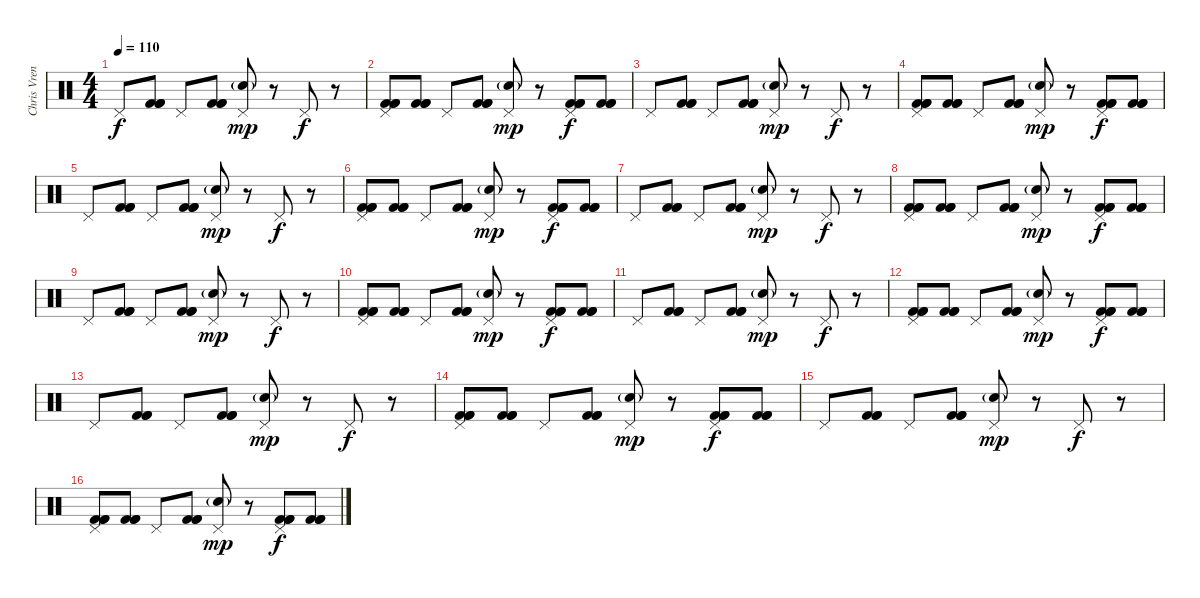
\track ("Chris Vrenna " "Chris Vren") {instrument percussion}
\staff {score}
\articulation defaults
\ts (4 4)
\tempo 110
\clef neutral
\ks c "Pedal Hi-Hat (hit)".8{dy f}
("Kick (hit) 2" "Kick (hit) 2" "Kick (hit) 2").8 "Pedal Hi-Hat (hit)".8 ("Kick (hit) 2" "Kick (hit) 2" "Kick (hit) 2").8 ("Pedal Hi-Hat (hit)" "Electric Snare (hit)"{g}).8{dy mp} r.8 "Pedal Hi-Hat (hit)".8{dy f} r.8 |
("Pedal Hi-Hat (hit)" "Kick (hit) 2" "Kick (hit) 2" "Kick (hit) 2").8 ("Kick (hit) 2" "Kick (hit) 2" "Kick (hit) 2").8 "Pedal Hi-Hat (hit)".8 ("Kick (hit) 2" "Kick (hit) 2" "Kick (hit) 2").8 ("Pedal Hi-Hat (hit)" "Electric Snare (hit)"{g}).8{dy mp} r.8 ("Pedal Hi-Hat (hit)" "Kick (hit) 2" "Kick (hit) 2" "Kick (hit) 2").8{dy f} ("Kick (hit) 2" "Kick (hit) 2" "Kick (hit) 2").8 |
"Pedal Hi-Hat (hit)".8 ("Kick (hit) 2" "Kick (hit) 2" "Kick (hit) 2").8 "Pedal Hi-Hat (hit)".8 ("Kick (hit) 2" "Kick (hit) 2" "Kick (hit) 2").8 ("Pedal Hi-Hat (hit)" "Electric Snare (hit)"{g}).8{dy mp} r.8 "Pedal Hi-Hat (hit)".8{dy f} r.8 |
("Pedal Hi-Hat (hit)" "Kick (hit) 2" "Kick (hit) 2" "Kick (hit) 2").8 ("Kick (hit) 2" "Kick (hit) 2" "Kick (hit) 2").8 "Pedal Hi-Hat (hit)".8 ("Kick (hit) 2" "Kick (hit) 2" "Kick (hit) 2").8 ("Pedal Hi-Hat (hit)" "Electric Snare (hit)"{g}).8{dy mp} r.8 ("Pedal Hi-Hat (hit)" "Kick (hit) 2" "Kick (hit) 2" "Kick (hit) 2").8{dy f} ("Kick (hit) 2" "Kick (hit) 2" "Kick (hit) 2").8 |
"Pedal Hi-Hat (hit)".8 ("Kick (hit) 2" "Kick (hit) 2" "Kick (hit) 2").8 "Pedal Hi-Hat (hit)".8 ("Kick (hit) 2" "Kick (hit) 2" "Kick (hit) 2").8 ("Pedal Hi-Hat (hit)" "Electric Snare (hit)"{g}).8{dy mp} r.8 "Pedal Hi-Hat (hit)".8{dy f} r.8 |
("Pedal Hi-Hat (hit)" "Kick (hit) 2" "Kick (hit) 2" "Kick (hit) 2").8 ("Kick (hit) 2" "Kick (hit) 2" "Kick (hit) 2").8 "Pedal Hi-Hat (hit)".8 ("Kick (hit) 2" "Kick (hit) 2" "Kick (hit) 2").8 ("Pedal Hi-Hat (hit)" "Electric Snare (hit)"{g}).8{dy mp} r.8 ("Pedal Hi-Hat (hit)" "Kick (hit) 2" "Kick (hit) 2" "Kick (hit) 2").8{dy f} ("Kick (hit) 2" "Kick (hit) 2" "Kick (hit) 2").8 |
"Pedal Hi-Hat (hit)".8 ("Kick (hit) 2" "Kick (hit) 2" "Kick (hit) 2").8 "Pedal Hi-Hat (hit)".8 ("Kick (hit) 2" "Kick (hit) 2" "Kick (hit) 2").8 ("Pedal Hi-Hat (hit)" "Electric Snare (hit)"{g}).8{dy mp} r.8 "Pedal Hi-Hat (hit)".8{dy f} r.8 |
("Pedal Hi-Hat (hit)" "Kick (hit) 2" "Kick (hit) 2" "Kick (hit) 2").8 ("Kick (hit) 2" "Kick (hit) 2" "Kick (hit) 2").8 "Pedal Hi-Hat (hit)".8 ("Kick (hit) 2" "Kick (hit) 2" "Kick (hit) 2").8 ("Pedal Hi-Hat (hit)" "Electric Snare (hit)"{g}).8{dy mp} r.8 ("Pedal Hi-Hat (hit)" "Kick (hit) 2" "Kick (hit) 2" "Kick (hit) 2").8{dy f} ("Kick (hit) 2" "Kick (hit) 2" "Kick (hit) 2").8 |
"Pedal Hi-Hat (hit)".8 ("Kick (hit) 2" "Kick (hit) 2" "Kick (hit) 2").8 "Pedal Hi-Hat (hit)".8 ("Kick (hit) 2" "Kick (hit) 2" "Kick (hit) 2").8 ("Pedal Hi-Hat (hit)" "Electric Snare (hit)"{g}).8{dy mp} r.8 "Pedal Hi-Hat (hit)".8{dy f} r.8 |
("Pedal Hi-Hat (hit)" "Kick (hit) 2" "Kick (hit) 2" "Kick (hit) 2").8 ("Kick (hit) 2" "Kick (hit) 2" "Kick (hit) 2").8 "Pedal Hi-Hat (hit)".8 ("Kick (hit) 2" "Kick (hit) 2" "Kick (hit) 2").8 ("Pedal Hi-Hat (hit)" "Electric Snare (hit)"{g}).8{dy mp} r.8 ("Pedal Hi-Hat (hit)" "Kick (hit) 2" "Kick (hit) 2" "Kick (hit) 2").8{dy f} ("Kick (hit) 2" "Kick (hit) 2" "Kick (hit) 2").8 |
"Pedal Hi-Hat (hit)".8 ("Kick (hit) 2" "Kick (hit) 2" "Kick (hit) 2").8 "Pedal Hi-Hat (hit)".8 ("Kick (hit) 2" "Kick (hit) 2" "Kick (hit) 2").8 ("Pedal Hi-Hat (hit)" "Electric Snare (hit)"{g}).8{dy mp} r.8 "Pedal Hi-Hat (hit)".8{dy f} r.8 |
("Pedal Hi-Hat (hit)" "Kick (hit) 2" "Kick (hit) 2" "Kick (hit) 2").8 ("Kick (hit) 2" "Kick (hit) 2" "Kick (hit) 2").8 "Pedal Hi-Hat (hit)".8 ("Kick (hit) 2" "Kick (hit) 2" "Kick (hit) 2").8 ("Pedal Hi-Hat (hit)" "Electric Snare (hit)"{g}).8{dy mp} r.8 ("Pedal Hi-Hat (hit)" "Kick (hit) 2" "Kick (hit) 2" "Kick (hit) 2").8{dy f} ("Kick (hit) 2" "Kick (hit) 2" "Kick (hit) 2").8 |
"Pedal Hi-Hat (hit)".8 ("Kick (hit) 2" "Kick (hit) 2" "Kick (hit) 2").8 "Pedal Hi-Hat (hit)".8 ("Kick (hit) 2" "Kick (hit) 2" "Kick (hit) 2").8 ("Pedal Hi-Hat (hit)" "Electric Snare (hit)"{g}).8{dy mp} r.8 "Pedal Hi-Hat (hit)".8{dy f} r.8 |
("Pedal Hi-Hat (hit)" "Kick (hit) 2" "Kick (hit) 2" "Kick (hit) 2").8 ("Kick (hit) 2" "Kick (hit) 2" "Kick (hit) 2").8 "Pedal Hi-Hat (hit)".8 ("Kick (hit) 2" "Kick (hit) 2" "Kick (hit) 2").8 ("Pedal Hi-Hat (hit)" "Electric Snare (hit)"{g}).8{dy mp} r.8 ("Pedal Hi-Hat (hit)" "Kick (hit) 2" "Kick (hit) 2" "Kick (hit) 2").8{dy f} ("Kick (hit) 2" "Kick (hit) 2" "Kick (hit) 2").8 |
"Pedal Hi-Hat (hit)".8 ("Kick (hit) 2" "Kick (hit) 2" "Kick (hit) 2").8 "Pedal Hi-Hat (hit)".8 ("Kick (hit) 2" "Kick (hit) 2" "Kick (hit) 2").8 ("Pedal Hi-Hat (hit)" "Electric Snare (hit)"{g}).8{dy mp} r.8 "Pedal Hi-Hat (hit)".8{dy f} r.8 |
("Pedal Hi-Hat (hit)" "Kick (hit) 2" "Kick (hit) 2" "Kick (hit) 2").8 ("Kick (hit) 2" "Kick (hit) 2" "Kick (hit) 2").8 "Pedal Hi-Hat (hit)".8 ("Kick (hit) 2" "Kick (hit) 2" "Kick (hit) 2").8 ("Pedal Hi-Hat (hit)" "Electric Snare (hit)"{g}).8{dy mp} r.8 ("Pedal Hi-Hat (hit)" "Kick (hit) 2" "Kick (hit) 2" "Kick (hit) 2").8{dy f} ("Kick (hit) 2" "Kick (hit) 2" "Kick (hit) 2").8
